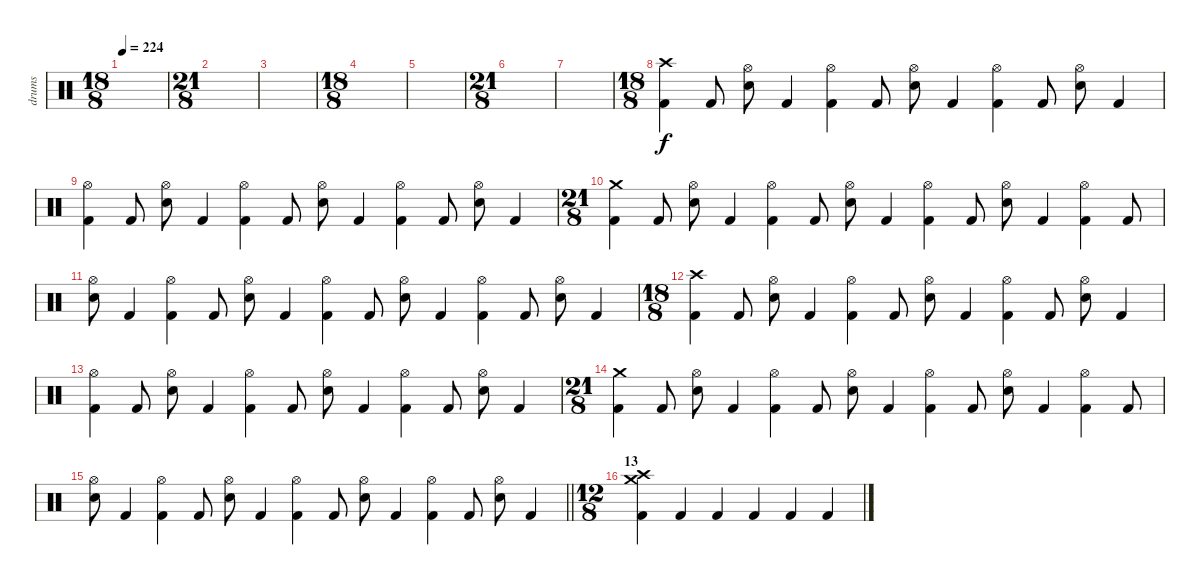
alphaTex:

\track ("drums" "drums") {instrument percussion}
\staff {score}
\articulation defaults
\ts (18 8)
\tempo 224
\clef neutral
\ks c
|
\ts (21 8)
|
|
\ts (18 8)
|
|
\ts (21 8)
|
|
\ts (18 8)
("Crash high (hit)" "Kick (hit) 2").4 "Kick (hit) 2".8 ("Hi-Hat (open)" "Electric Snare (hit)").8 "Kick (hit) 2".4 ("Hi-Hat (open)" "Kick (hit) 2").4 "Kick (hit) 2".8 ("Hi-Hat (open)" "Electric Snare (hit)").8 "Kick (hit) 2".4 ("Hi-Hat (open)" "Kick (hit) 2").4 "Kick (hit) 2".8 ("Hi-Hat (open)" "Electric Snare (hit)").8 "Kick (hit) 2".4 |
("Hi-Hat (open)" "Kick (hit) 2").4 "Kick (hit) 2".8 ("Electric Snare (hit)" "Hi-Hat (open)").8 "Kick (hit) 2".4 ("Hi-Hat (open)" "Kick (hit) 2").4 "Kick (hit) 2".8 ("Electric Snare (hit)" "Hi-Hat (open)").8 "Kick (hit) 2".4 ("Hi-Hat (open)" "Kick (hit) 2").4 "Kick (hit) 2".8 ("Electric Snare (hit)" "Hi-Hat (open)").8 "Kick (hit) 2".4 |
\ts (21 8)
("Kick (hit) 2" "Crash medium (hit)").4 "Kick (hit) 2".8 ("Electric Snare (hit)" "Hi-Hat (open)").8 "Kick (hit) 2".4 ("Kick (hit) 2" "Hi-Hat (open)").4 "Kick (hit) 2".8 ("Electric Snare (hit)" "Hi-Hat (open)").8 "Kick (hit) 2".4 ("Kick (hit) 2" "Hi-Hat (open)").4 "Kick (hit) 2".8 ("Electric Snare (hit)" "Hi-Hat (open)").8 "Kick (hit) 2".4 ("Kick (hit) 2" "Hi-Hat (open)").4 "Kick (hit) 2".8 |
("Electric Snare (hit)" "Hi-Hat (open)").8 "Kick (hit) 2".4 ("Kick (hit) 2" "Hi-Hat (open)").4 "Kick (hit) 2".8 ("Electric Snare (hit)" "Hi-Hat (open)").8 "Kick (hit) 2".4 ("Kick (hit) 2" "Hi-Hat (open)").4 "Kick (hit) 2".8 ("Electric Snare (hit)" "Hi-Hat (open)").8 "Kick (hit) 2".4 ("Kick (hit) 2" "Hi-Hat (open)").4 "Kick (hit) 2".8 ("Electric Snare (hit)" "Hi-Hat (open)").8 "Kick (hit) 2".4 |
\ts (18 8)
("Crash high (hit)" "Kick (hit) 2").4 "Kick (hit) 2".8 ("Hi-Hat (open)" "Electric Snare (hit)").8 "Kick (hit) 2".4 ("Hi-Hat (open)" "Kick (hit) 2").4 "Kick (hit) 2".8 ("Hi-Hat (open)" "Electric Snare (hit)").8 "Kick (hit) 2".4 ("Hi-Hat (open)" "Kick (hit) 2").4 "Kick (hit) 2".8 ("Hi-Hat (open)" "Electric Snare (hit)").8 "Kick (hit) 2".4 |
("Hi-Hat (open)" "Kick (hit) 2").4 "Kick (hit) 2".8 ("Electric Snare (hit)" "Hi-Hat (open)").8 "Kick (hit) 2".4 ("Hi-Hat (open)" "Kick (hit) 2").4 "Kick (hit) 2".8 ("Electric Snare (hit)" "Hi-Hat (open)").8 "Kick (hit) 2".4 ("Hi-Hat (open)" "Kick (hit) 2").4 "Kick (hit) 2".8 ("Electric Snare (hit)" "Hi-Hat (open)").8 "Kick (hit) 2".4 |
\ts (21 8)
("Kick (hit) 2" "Crash medium (hit)").4 "Kick (hit) 2".8 ("Electric Snare (hit)" "Hi-Hat (open)").8 "Kick (hit) 2".4 ("Kick (hit) 2" "Hi-Hat (open)").4 "Kick (hit) 2".8 ("Electric Snare (hit)" "Hi-Hat (open)").8 "Kick (hit) 2".4 ("Kick (hit) 2" "Hi-Hat (open)").4 "Kick (hit) 2".8 ("Electric Snare (hit)" "Hi-Hat (open)").8 "Kick (hit) 2".4 ("Kick (hit) 2" "Hi-Hat (open)").4 "Kick (hit) 2".8 |
\barLineRight lightlight
("Electric Snare (hit)" "Hi-Hat (open)").8 "Kick (hit) 2".4 ("Kick (hit) 2" "Hi-Hat (open)").4 "Kick (hit) 2".8 ("Electric Snare (hit)" "Hi-Hat (open)").8 "Kick (hit) 2".4 ("Kick (hit) 2" "Hi-Hat (open)").4 "Kick (hit) 2".8 ("Electric Snare (hit)" "Hi-Hat (open)").8 "Kick (hit) 2".4 ("Kick (hit) 2" "Hi-Hat (open)").4 "Kick (hit) 2".8 ("Electric Snare (hit)" "Hi-Hat (open)").8 "Kick (hit) 2".4 |
\ts (12 8)
\section ("" "13")
("Kick (hit) 2" "Crash medium (hit)" "Crash high (hit)").4 "Kick (hit) 2".4 "Kick (hit) 2".4 "Kick (hit) 2".4 "Kick (hit) 2".4 "Kick (hit) 2".4
